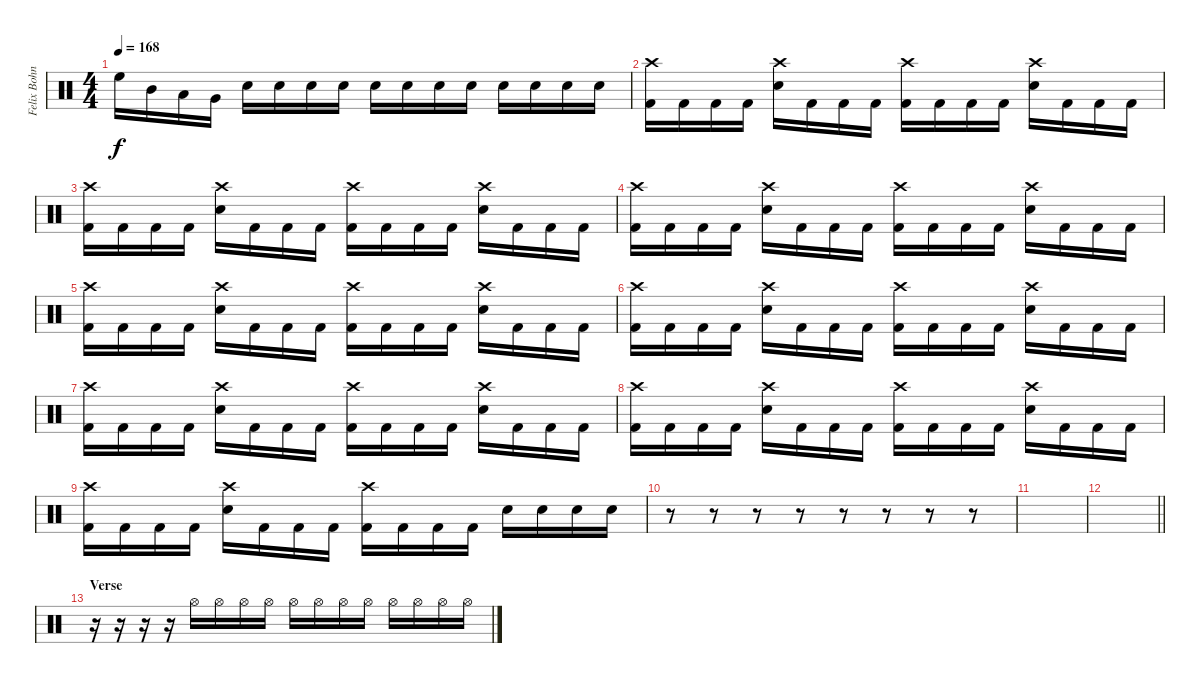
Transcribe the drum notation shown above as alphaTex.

\track ("Felix Bohnke" "Felix Bohn") {instrument percussion}
\staff {score}
\articulation defaults
\ts (4 4)
\tempo 168
\clef neutral
\ks c "High Floor Tom (hit)".16{dy f} "Mid Tom (hit)".16 "Low Tom (hit)".16 "Very Low Tom (hit)".16 "Electric Snare (hit)".16 "Electric Snare (hit)".16 "Electric Snare (hit)".16 "Electric Snare (hit)".16 "Electric Snare (hit)".16{volume 5} "Electric Snare (hit)".16{volume 6} "Electric Snare (hit)".16{volume 7} "Electric Snare (hit)".16{volume 8} "Electric Snare (hit)".16{volume 9} "Electric Snare (hit)".16{volume 11} "Electric Snare (hit)".16{volume 13} "Electric Snare (hit)".16{volume 16}
|
("Crash high (hit)" "Kick (hit) 2").16 "Kick (hit) 2".16 "Kick (hit) 2".16 "Kick (hit) 2".16 ("Crash high (hit)" "Electric Snare (hit)").16 "Kick (hit) 2".16 "Kick (hit) 2".16 "Kick (hit) 2".16 ("Crash high (hit)" "Kick (hit) 2").16 "Kick (hit) 2".16 "Kick (hit) 2".16 "Kick (hit) 2".16 ("Crash high (hit)" "Electric Snare (hit)").16 "Kick (hit) 2".16 "Kick (hit) 2".16 "Kick (hit) 2".16 |
("Crash high (hit)" "Kick (hit) 2").16 "Kick (hit) 2".16 "Kick (hit) 2".16 "Kick (hit) 2".16 ("Crash high (hit)" "Electric Snare (hit)").16 "Kick (hit) 2".16 "Kick (hit) 2".16 "Kick (hit) 2".16 ("Crash high (hit)" "Kick (hit) 2").16 "Kick (hit) 2".16 "Kick (hit) 2".16 "Kick (hit) 2".16 ("Crash high (hit)" "Electric Snare (hit)").16 "Kick (hit) 2".16 "Kick (hit) 2".16 "Kick (hit) 2".16 |
("Crash high (hit)" "Kick (hit) 2").16 "Kick (hit) 2".16 "Kick (hit) 2".16 "Kick (hit) 2".16 ("Crash high (hit)" "Electric Snare (hit)").16 "Kick (hit) 2".16 "Kick (hit) 2".16 "Kick (hit) 2".16 ("Crash high (hit)" "Kick (hit) 2").16 "Kick (hit) 2".16 "Kick (hit) 2".16 "Kick (hit) 2".16 ("Crash high (hit)" "Electric Snare (hit)").16 "Kick (hit) 2".16 "Kick (hit) 2".16 "Kick (hit) 2".16 |
("Crash high (hit)" "Kick (hit) 2").16 "Kick (hit) 2".16 "Kick (hit) 2".16 "Kick (hit) 2".16 ("Crash high (hit)" "Electric Snare (hit)").16 "Kick (hit) 2".16 "Kick (hit) 2".16 "Kick (hit) 2".16 ("Crash high (hit)" "Kick (hit) 2").16 "Kick (hit) 2".16 "Kick (hit) 2".16 "Kick (hit) 2".16 ("Crash high (hit)" "Electric Snare (hit)").16 "Kick (hit) 2".16 "Kick (hit) 2".16 "Kick (hit) 2".16 |
("Crash high (hit)" "Kick (hit) 2").16 "Kick (hit) 2".16 "Kick (hit) 2".16 "Kick (hit) 2".16 ("Crash high (hit)" "Electric Snare (hit)").16 "Kick (hit) 2".16 "Kick (hit) 2".16 "Kick (hit) 2".16 ("Crash high (hit)" "Kick (hit) 2").16 "Kick (hit) 2".16 "Kick (hit) 2".16 "Kick (hit) 2".16 ("Crash high (hit)" "Electric Snare (hit)").16 "Kick (hit) 2".16 "Kick (hit) 2".16 "Kick (hit) 2".16 |
("Crash high (hit)" "Kick (hit) 2").16 "Kick (hit) 2".16 "Kick (hit) 2".16 "Kick (hit) 2".16 ("Crash high (hit)" "Electric Snare (hit)").16 "Kick (hit) 2".16 "Kick (hit) 2".16 "Kick (hit) 2".16 ("Crash high (hit)" "Kick (hit) 2").16 "Kick (hit) 2".16 "Kick (hit) 2".16 "Kick (hit) 2".16 ("Crash high (hit)" "Electric Snare (hit)").16 "Kick (hit) 2".16 "Kick (hit) 2".16 "Kick (hit) 2".16 |
("Crash high (hit)" "Kick (hit) 2").16 "Kick (hit) 2".16 "Kick (hit) 2".16 "Kick (hit) 2".16 ("Crash high (hit)" "Electric Snare (hit)").16 "Kick (hit) 2".16 "Kick (hit) 2".16 "Kick (hit) 2".16 ("Crash high (hit)" "Kick (hit) 2").16 "Kick (hit) 2".16 "Kick (hit) 2".16 "Kick (hit) 2".16 ("Crash high (hit)" "Electric Snare (hit)").16 "Kick (hit) 2".16 "Kick (hit) 2".16 "Kick (hit) 2".16 |
("Crash high (hit)" "Kick (hit) 2").16 "Kick (hit) 2".16 "Kick (hit) 2".16 "Kick (hit) 2".16 ("Crash high (hit)" "Electric Snare (hit)").16 "Kick (hit) 2".16 "Kick (hit) 2".16 "Kick (hit) 2".16 ("Crash high (hit)" "Kick (hit) 2").16 "Kick (hit) 2".16 "Kick (hit) 2".16 "Kick (hit) 2".16 "Electric Snare (hit)".16 "Electric Snare (hit)".16 "Electric Snare (hit)".16 "Electric Snare (hit)".16 |
r.8 r.8 r.8 r.8 r.8 r.8 r.8 r.8 |
|
\barLineRight lightlight
|
\section ("" "Verse")
r.16 r.16 r.16 r.16 "Hi-Hat (open)".16{volume 1} "Hi-Hat (open)".16{volume 3} "Hi-Hat (open)".16{volume 4} "Hi-Hat (open)".16{volume 6} "Hi-Hat (open)".16{volume 7} "Hi-Hat (open)".16{volume 8} "Hi-Hat (open)".16{volume 9} "Hi-Hat (open)".16{volume 10} "Hi-Hat (open)".16{volume 12} "Hi-Hat (open)".16{volume 13} "Hi-Hat (open)".16{volume 14} "Hi-Hat (open)".16{volume 16}
